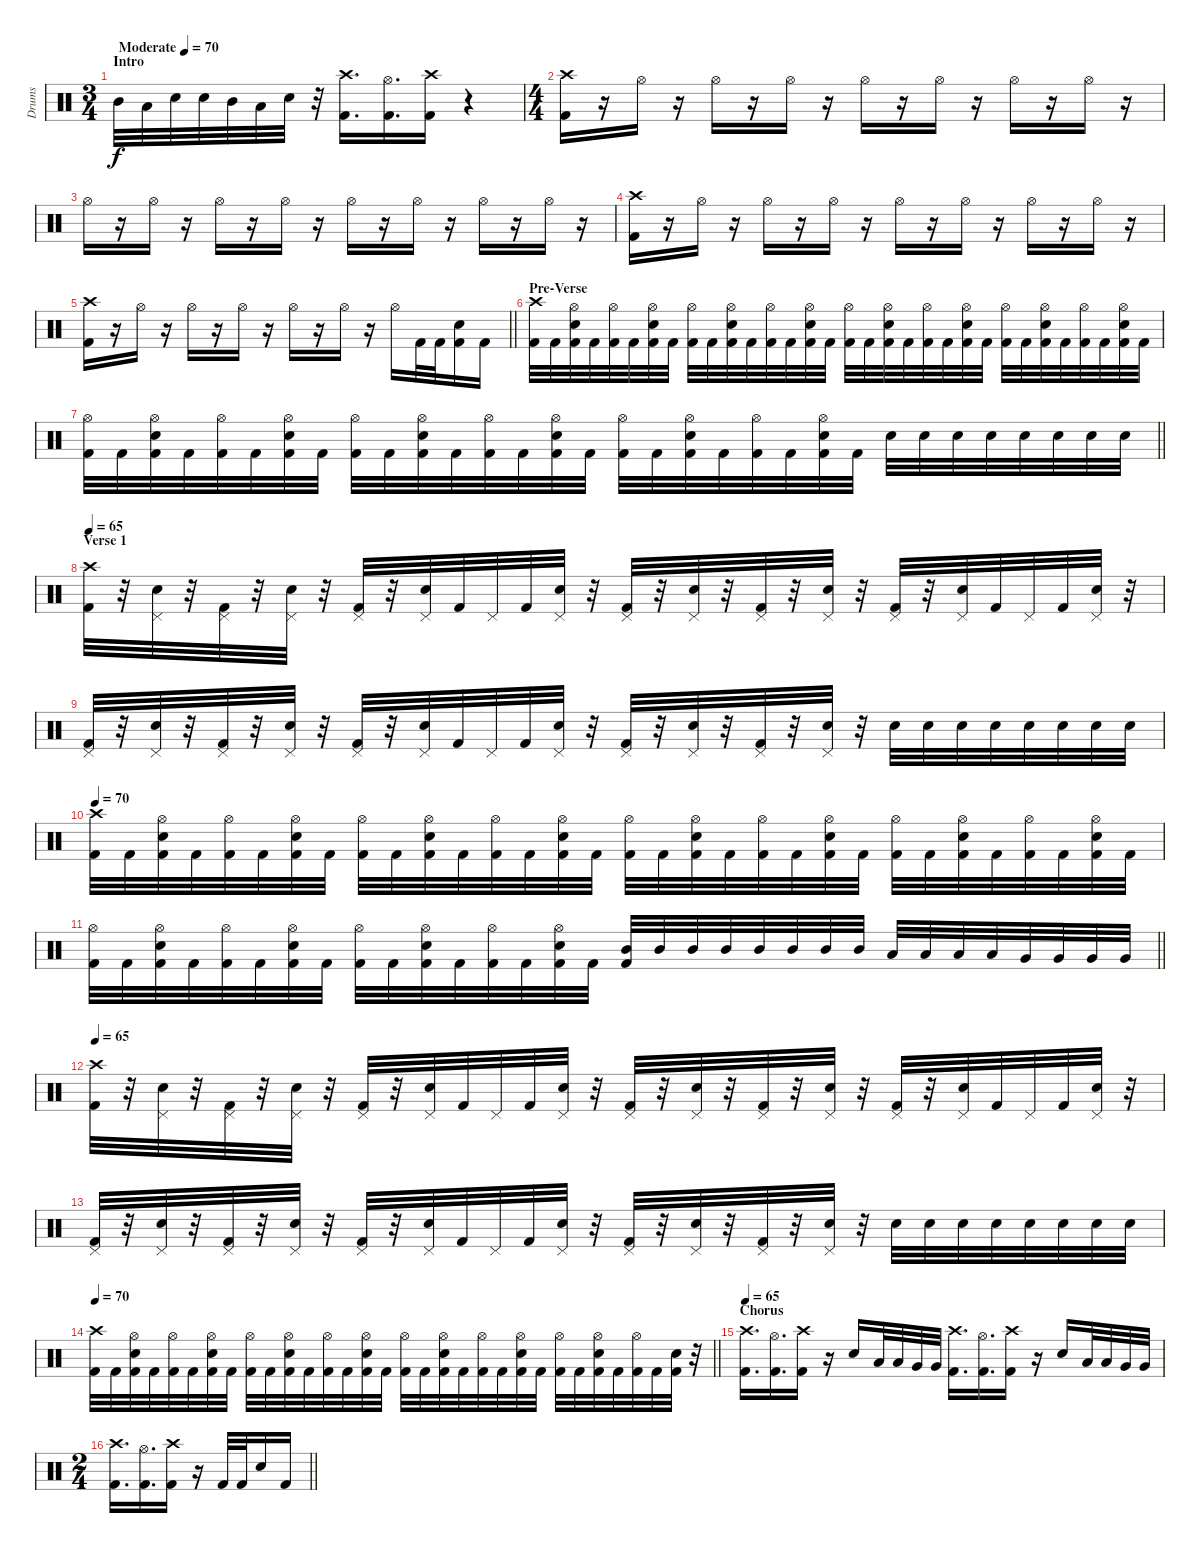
\track ("Drums" "Drums") {instrument percussion}
\staff {score}
\articulation defaults
\ts (3 4)
\section ("" "Intro")
\tempo (70 "Moderate")
\clef neutral
\ks c "Mid Tom (hit)".32{dy f} "Low Tom (hit)".32 "Snare (hit) 2".32 "Snare (hit) 2".32 "Mid Tom (hit)".32 "Low Tom (hit)".32 "Snare (hit) 2".32
r.32 ("Crash high (hit)" "Kick (hit) 2").16{d} ("Hi-Hat (open)" "Kick (hit) 2").16{d} ("Crash high (hit)" "Kick (hit) 2").16 r.4 |
\ts (4 4)
("Crash high (hit)" "Kick (hit) 2").16 r.16 "Hi-Hat (open)".16 r.16 "Hi-Hat (open)".16 r.16 "Hi-Hat (open)".16 r.16 "Hi-Hat (open)".16 r.16 "Hi-Hat (open)".16 r.16 "Hi-Hat (open)".16 r.16 "Hi-Hat (open)".16 r.16 |
"Hi-Hat (open)".16 r.16 "Hi-Hat (open)".16 r.16 "Hi-Hat (open)".16 r.16 "Hi-Hat (open)".16 r.16 "Hi-Hat (open)".16 r.16 "Hi-Hat (open)".16 r.16 "Hi-Hat (open)".16 r.16 "Hi-Hat (open)".16 r.16 |
("Crash high (hit)" "Kick (hit) 2").16 r.16 "Hi-Hat (open)".16 r.16 "Hi-Hat (open)".16 r.16 "Hi-Hat (open)".16 r.16 "Hi-Hat (open)".16 r.16 "Hi-Hat (open)".16 r.16 "Hi-Hat (open)".16 r.16 "Hi-Hat (open)".16 r.16 |
\barLineRight lightlight
("Crash high (hit)" "Kick (hit) 2").16 r.16 "Hi-Hat (open)".16 r.16 "Hi-Hat (open)".16 r.16 "Hi-Hat (open)".16 r.16 "Hi-Hat (open)".16 r.16 "Hi-Hat (open)".16 r.16 "Hi-Hat (open)".16 "Kick (hit) 2".32 "Kick (hit) 2".32 ("Snare (hit) 2" "Kick (hit) 2").16 "Kick (hit) 2".16 |
\section ("" "Pre-Verse")
("Crash high (hit)" "Kick (hit) 2").32 "Kick (hit) 2".32 ("Hi-Hat (open)" "Snare (hit) 2" "Kick (hit) 2").32 "Kick (hit) 2".32 ("Hi-Hat (open)" "Kick (hit) 2").32 "Kick (hit) 2".32 ("Hi-Hat (open)" "Snare (hit) 2" "Kick (hit) 2").32 "Kick (hit) 2".32 ("Hi-Hat (open)" "Kick (hit) 2").32 "Kick (hit) 2".32 ("Hi-Hat (open)" "Snare (hit) 2" "Kick (hit) 2").32 "Kick (hit) 2".32 ("Hi-Hat (open)" "Kick (hit) 2").32 "Kick (hit) 2".32 ("Hi-Hat (open)" "Snare (hit) 2" "Kick (hit) 2").32 "Kick (hit) 2".32 ("Hi-Hat (open)" "Kick (hit) 2").32 "Kick (hit) 2".32 ("Hi-Hat (open)" "Snare (hit) 2" "Kick (hit) 2").32 "Kick (hit) 2".32 ("Hi-Hat (open)" "Kick (hit) 2").32 "Kick (hit) 2".32 ("Hi-Hat (open)" "Snare (hit) 2" "Kick (hit) 2").32 "Kick (hit) 2".32 ("Hi-Hat (open)" "Kick (hit) 2").32 "Kick (hit) 2".32 ("Hi-Hat (open)" "Snare (hit) 2" "Kick (hit) 2").32 "Kick (hit) 2".32 ("Hi-Hat (open)" "Kick (hit) 2").32 "Kick (hit) 2".32 ("Hi-Hat (open)" "Snare (hit) 2" "Kick (hit) 2").32 "Kick (hit) 2".32 |
\barLineRight lightlight
("Hi-Hat (open)" "Kick (hit) 2").32 "Kick (hit) 2".32 ("Hi-Hat (open)" "Snare (hit) 2" "Kick (hit) 2").32 "Kick (hit) 2".32 ("Hi-Hat (open)" "Kick (hit) 2").32 "Kick (hit) 2".32 ("Hi-Hat (open)" "Snare (hit) 2" "Kick (hit) 2").32 "Kick (hit) 2".32 ("Hi-Hat (open)" "Kick (hit) 2").32 "Kick (hit) 2".32 ("Hi-Hat (open)" "Snare (hit) 2" "Kick (hit) 2").32 "Kick (hit) 2".32 ("Hi-Hat (open)" "Kick (hit) 2").32 "Kick (hit) 2".32 ("Hi-Hat (open)" "Snare (hit) 2" "Kick (hit) 2").32 "Kick (hit) 2".32 ("Hi-Hat (open)" "Kick (hit) 2").32 "Kick (hit) 2".32 ("Hi-Hat (open)" "Snare (hit) 2" "Kick (hit) 2").32 "Kick (hit) 2".32 ("Hi-Hat (open)" "Kick (hit) 2").32 "Kick (hit) 2".32 ("Hi-Hat (open)" "Snare (hit) 2" "Kick (hit) 2").32 "Kick (hit) 2".32 "Snare (hit) 2".32 "Snare (hit) 2".32 "Snare (hit) 2".32 "Snare (hit) 2".32 "Snare (hit) 2".32 "Snare (hit) 2".32 "Snare (hit) 2".32 "Snare (hit) 2".32 |
\section ("" "Verse 1")
\tempo 65
("Crash high (hit)" "Kick (hit) 2").32 r.32 ("Pedal Hi-Hat (hit)" "Snare (hit) 2").32 r.32 ("Pedal Hi-Hat (hit)" "Kick (hit) 2").32 r.32 ("Pedal Hi-Hat (hit)" "Snare (hit) 2").32 r.32 ("Pedal Hi-Hat (hit)" "Kick (hit) 2").32 r.32 ("Pedal Hi-Hat (hit)" "Snare (hit) 2").32 "Kick (hit) 2".32 "Pedal Hi-Hat (hit)".32 "Kick (hit) 2".32 ("Pedal Hi-Hat (hit)" "Snare (hit) 2").32 r.32 ("Pedal Hi-Hat (hit)" "Kick (hit) 2").32 r.32 ("Pedal Hi-Hat (hit)" "Snare (hit) 2").32 r.32 ("Pedal Hi-Hat (hit)" "Kick (hit) 2").32 r.32 ("Pedal Hi-Hat (hit)" "Snare (hit) 2").32 r.32 ("Pedal Hi-Hat (hit)" "Kick (hit) 2").32 r.32 ("Pedal Hi-Hat (hit)" "Snare (hit) 2").32 "Kick (hit) 2".32 "Pedal Hi-Hat (hit)".32 "Kick (hit) 2".32 ("Pedal Hi-Hat (hit)" "Snare (hit) 2").32 r.32 |
("Pedal Hi-Hat (hit)" "Kick (hit) 2").32 r.32 ("Pedal Hi-Hat (hit)" "Snare (hit) 2").32 r.32 ("Pedal Hi-Hat (hit)" "Kick (hit) 2").32 r.32 ("Pedal Hi-Hat (hit)" "Snare (hit) 2").32 r.32 ("Pedal Hi-Hat (hit)" "Kick (hit) 2").32 r.32 ("Pedal Hi-Hat (hit)" "Snare (hit) 2").32 "Kick (hit) 2".32 "Pedal Hi-Hat (hit)".32 "Kick (hit) 2".32 ("Pedal Hi-Hat (hit)" "Snare (hit) 2").32 r.32 ("Pedal Hi-Hat (hit)" "Kick (hit) 2").32 r.32 ("Pedal Hi-Hat (hit)" "Snare (hit) 2").32 r.32 ("Pedal Hi-Hat (hit)" "Kick (hit) 2").32 r.32 ("Pedal Hi-Hat (hit)" "Snare (hit) 2").32 r.32 "Snare (hit) 2".32 "Snare (hit) 2".32 "Snare (hit) 2".32 "Snare (hit) 2".32 "Snare (hit) 2".32 "Snare (hit) 2".32 "Snare (hit) 2".32 "Snare (hit) 2".32 |
\tempo 70
("Crash high (hit)" "Kick (hit) 2").32 "Kick (hit) 2".32 ("Hi-Hat (open)" "Snare (hit) 2" "Kick (hit) 2").32 "Kick (hit) 2".32 ("Hi-Hat (open)" "Kick (hit) 2").32 "Kick (hit) 2".32 ("Hi-Hat (open)" "Snare (hit) 2" "Kick (hit) 2").32 "Kick (hit) 2".32 ("Hi-Hat (open)" "Kick (hit) 2").32 "Kick (hit) 2".32 ("Hi-Hat (open)" "Snare (hit) 2" "Kick (hit) 2").32 "Kick (hit) 2".32 ("Hi-Hat (open)" "Kick (hit) 2").32 "Kick (hit) 2".32 ("Hi-Hat (open)" "Snare (hit) 2" "Kick (hit) 2").32 "Kick (hit) 2".32 ("Hi-Hat (open)" "Kick (hit) 2").32 "Kick (hit) 2".32 ("Hi-Hat (open)" "Snare (hit) 2" "Kick (hit) 2").32 "Kick (hit) 2".32 ("Hi-Hat (open)" "Kick (hit) 2").32 "Kick (hit) 2".32 ("Hi-Hat (open)" "Snare (hit) 2" "Kick (hit) 2").32 "Kick (hit) 2".32 ("Hi-Hat (open)" "Kick (hit) 2").32 "Kick (hit) 2".32 ("Hi-Hat (open)" "Snare (hit) 2" "Kick (hit) 2").32 "Kick (hit) 2".32 ("Hi-Hat (open)" "Kick (hit) 2").32 "Kick (hit) 2".32 ("Hi-Hat (open)" "Snare (hit) 2" "Kick (hit) 2").32 "Kick (hit) 2".32 |
\barLineRight lightlight
("Hi-Hat (open)" "Kick (hit) 2").32 "Kick (hit) 2".32 ("Hi-Hat (open)" "Snare (hit) 2" "Kick (hit) 2").32 "Kick (hit) 2".32 ("Hi-Hat (open)" "Kick (hit) 2").32 "Kick (hit) 2".32 ("Hi-Hat (open)" "Snare (hit) 2" "Kick (hit) 2").32 "Kick (hit) 2".32 ("Hi-Hat (open)" "Kick (hit) 2").32 "Kick (hit) 2".32 ("Hi-Hat (open)" "Snare (hit) 2" "Kick (hit) 2").32 "Kick (hit) 2".32 ("Hi-Hat (open)" "Kick (hit) 2").32 "Kick (hit) 2".32 ("Hi-Hat (open)" "Snare (hit) 2" "Kick (hit) 2").32 "Kick (hit) 2".32 ("Mid Tom (hit)" "Kick (hit) 2").32 "Mid Tom (hit)".32 "Mid Tom (hit)".32 "Mid Tom (hit)".32 "Mid Tom (hit)".32 "Mid Tom (hit)".32 "Mid Tom (hit)".32 "Mid Tom (hit)".32 "Low Tom (hit)".32 "Low Tom (hit)".32 "Low Tom (hit)".32 "Low Tom (hit)".32 "Very Low Tom (hit)".32 "Very Low Tom (hit)".32 "Very Low Tom (hit)".32 "Very Low Tom (hit)".32 |
\tempo 65
("Crash high (hit)" "Kick (hit) 2").32 r.32 ("Pedal Hi-Hat (hit)" "Snare (hit) 2").32 r.32 ("Pedal Hi-Hat (hit)" "Kick (hit) 2").32 r.32 ("Pedal Hi-Hat (hit)" "Snare (hit) 2").32 r.32 ("Pedal Hi-Hat (hit)" "Kick (hit) 2").32 r.32 ("Pedal Hi-Hat (hit)" "Snare (hit) 2").32 "Kick (hit) 2".32 "Pedal Hi-Hat (hit)".32 "Kick (hit) 2".32 ("Pedal Hi-Hat (hit)" "Snare (hit) 2").32 r.32 ("Pedal Hi-Hat (hit)" "Kick (hit) 2").32 r.32 ("Pedal Hi-Hat (hit)" "Snare (hit) 2").32 r.32 ("Pedal Hi-Hat (hit)" "Kick (hit) 2").32 r.32 ("Pedal Hi-Hat (hit)" "Snare (hit) 2").32 r.32 ("Pedal Hi-Hat (hit)" "Kick (hit) 2").32 r.32 ("Pedal Hi-Hat (hit)" "Snare (hit) 2").32 "Kick (hit) 2".32 "Pedal Hi-Hat (hit)".32 "Kick (hit) 2".32 ("Pedal Hi-Hat (hit)" "Snare (hit) 2").32 r.32 |
("Pedal Hi-Hat (hit)" "Kick (hit) 2").32 r.32 ("Pedal Hi-Hat (hit)" "Snare (hit) 2").32 r.32 ("Pedal Hi-Hat (hit)" "Kick (hit) 2").32 r.32 ("Pedal Hi-Hat (hit)" "Snare (hit) 2").32 r.32 ("Pedal Hi-Hat (hit)" "Kick (hit) 2").32 r.32 ("Pedal Hi-Hat (hit)" "Snare (hit) 2").32 "Kick (hit) 2".32 "Pedal Hi-Hat (hit)".32 "Kick (hit) 2".32 ("Pedal Hi-Hat (hit)" "Snare (hit) 2").32 r.32 ("Pedal Hi-Hat (hit)" "Kick (hit) 2").32 r.32 ("Pedal Hi-Hat (hit)" "Snare (hit) 2").32 r.32 ("Pedal Hi-Hat (hit)" "Kick (hit) 2").32 r.32 ("Pedal Hi-Hat (hit)" "Snare (hit) 2").32 r.32 "Snare (hit) 2".32 "Snare (hit) 2".32 "Snare (hit) 2".32 "Snare (hit) 2".32 "Snare (hit) 2".32 "Snare (hit) 2".32 "Snare (hit) 2".32 "Snare (hit) 2".32 |
\tempo 70
\barLineRight lightlight
("Crash high (hit)" "Kick (hit) 2").32 "Kick (hit) 2".32 ("Hi-Hat (open)" "Snare (hit) 2" "Kick (hit) 2").32 "Kick (hit) 2".32 ("Hi-Hat (open)" "Kick (hit) 2").32 "Kick (hit) 2".32 ("Hi-Hat (open)" "Snare (hit) 2" "Kick (hit) 2").32 "Kick (hit) 2".32 ("Hi-Hat (open)" "Kick (hit) 2").32 "Kick (hit) 2".32 ("Hi-Hat (open)" "Snare (hit) 2" "Kick (hit) 2").32 "Kick (hit) 2".32 ("Hi-Hat (open)" "Kick (hit) 2").32 "Kick (hit) 2".32 ("Hi-Hat (open)" "Snare (hit) 2" "Kick (hit) 2").32 "Kick (hit) 2".32 ("Hi-Hat (open)" "Kick (hit) 2").32 "Kick (hit) 2".32 ("Hi-Hat (open)" "Snare (hit) 2" "Kick (hit) 2").32 "Kick (hit) 2".32 ("Hi-Hat (open)" "Kick (hit) 2").32 "Kick (hit) 2".32 ("Hi-Hat (open)" "Snare (hit) 2" "Kick (hit) 2").32 "Kick (hit) 2".32 ("Hi-Hat (open)" "Kick (hit) 2").32 "Kick (hit) 2".32 ("Hi-Hat (open)" "Snare (hit) 2" "Kick (hit) 2").32 "Kick (hit) 2".32 ("Hi-Hat (open)" "Kick (hit) 2").32 "Kick (hit) 2".32 ("Snare (hit) 2" "Kick (hit) 2").32 r.32 |
\section ("" "Chorus")
\tempo 65
("Crash high (hit)" "Kick (hit) 2").16{d} ("Hi-Hat (open)" "Kick (hit) 2").16{d} ("Crash high (hit)" "Kick (hit) 2").16 r.16 "Snare (hit) 2".16 "Low Tom (hit)".32 "Low Tom (hit)".32 "Very Low Tom (hit)".32 "Very Low Tom (hit)".32 ("Crash high (hit)" "Kick (hit) 2").16{d} ("Hi-Hat (open)" "Kick (hit) 2").16{d} ("Crash high (hit)" "Kick (hit) 2").16 r.16 "Snare (hit) 2".16 "Low Tom (hit)".32 "Low Tom (hit)".32 "Very Low Tom (hit)".32 "Very Low Tom (hit)".32 |
\ts (2 4)
\barLineRight lightlight
("Crash high (hit)" "Kick (hit) 2").16{d} ("Hi-Hat (open)" "Kick (hit) 2").16{d} ("Crash high (hit)" "Kick (hit) 2").16 r.16 "Kick (hit) 2".32 "Kick (hit) 2".32 "Snare (hit) 2".16 "Kick (hit) 2".16
